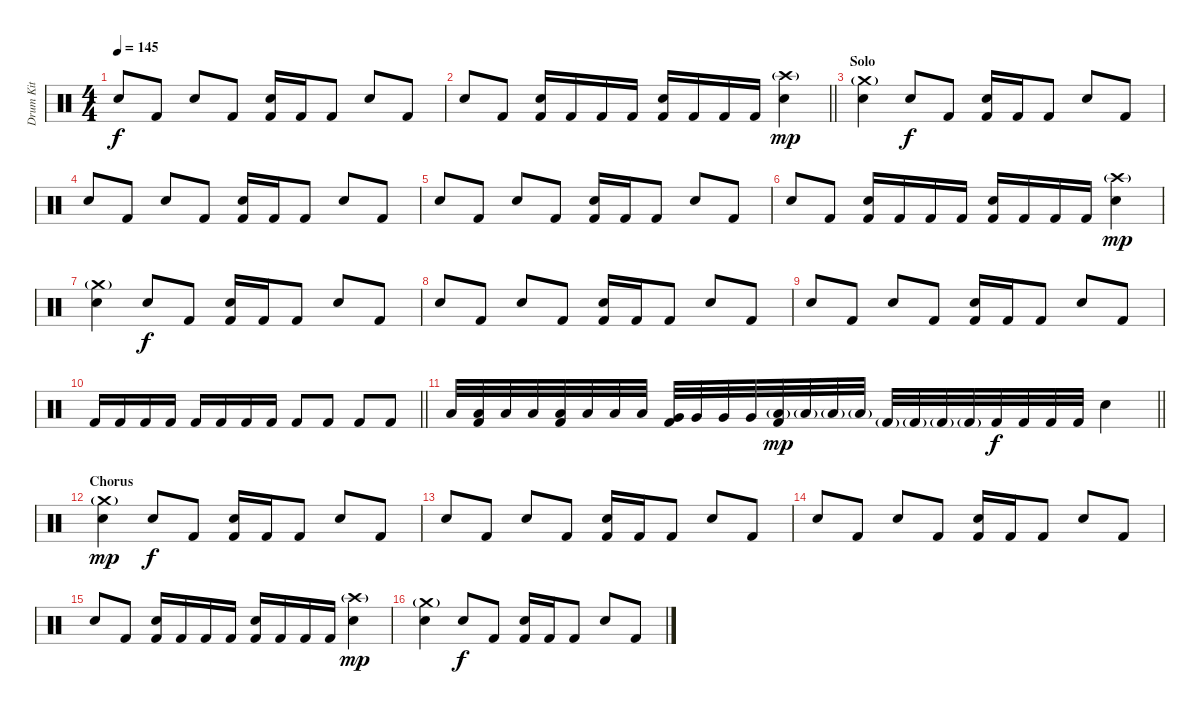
\track ("Drum Kit" "Drum Kit") {instrument percussion}
\staff {score}
\articulation defaults
\ts (4 4)
\tempo 145
\clef neutral
\ks c "Electric Snare (hit)".8{dy f} "Kick (hit) 2".8 "Electric Snare (hit)".8 "Kick (hit) 2".8
("Electric Snare (hit)" "Kick (hit) 2").16 "Kick (hit) 2".16 "Kick (hit) 2".8 "Electric Snare (hit)".8 "Kick (hit) 2".8 |
\barLineRight lightlight "Electric Snare (hit)".8 "Kick (hit) 2".8
("Electric Snare (hit)" "Kick (hit) 2").16 "Kick (hit) 2".16 "Kick (hit) 2".16 "Kick (hit) 2".16 ("Electric Snare (hit)" "Kick (hit) 2").16 "Kick (hit) 2".16 "Kick (hit) 2".16 "Kick (hit) 2".16 ("Crash high (hit)"{g} "Electric Snare (hit)").4{dy mp} |
\section ("" "Solo")
("Crash medium (hit)"{g} "Electric Snare (hit)").4 "Electric Snare (hit)".8{dy f} "Kick (hit) 2".8 ("Electric Snare (hit)" "Kick (hit) 2").16 "Kick (hit) 2".16 "Kick (hit) 2".8 "Electric Snare (hit)".8 "Kick (hit) 2".8 |
"Electric Snare (hit)".8 "Kick (hit) 2".8 "Electric Snare (hit)".8 "Kick (hit) 2".8 ("Electric Snare (hit)" "Kick (hit) 2").16 "Kick (hit) 2".16 "Kick (hit) 2".8 "Electric Snare (hit)".8 "Kick (hit) 2".8 |
"Electric Snare (hit)".8 "Kick (hit) 2".8 "Electric Snare (hit)".8 "Kick (hit) 2".8 ("Electric Snare (hit)" "Kick (hit) 2").16 "Kick (hit) 2".16 "Kick (hit) 2".8 "Electric Snare (hit)".8 "Kick (hit) 2".8 |
"Electric Snare (hit)".8 "Kick (hit) 2".8 ("Electric Snare (hit)" "Kick (hit) 2").16 "Kick (hit) 2".16 "Kick (hit) 2".16 "Kick (hit) 2".16 ("Electric Snare (hit)" "Kick (hit) 2").16 "Kick (hit) 2".16 "Kick (hit) 2".16 "Kick (hit) 2".16 ("Crash high (hit)"{g} "Electric Snare (hit)").4{dy mp} |
("Crash medium (hit)"{g} "Electric Snare (hit)").4 "Electric Snare (hit)".8{dy f} "Kick (hit) 2".8 ("Electric Snare (hit)" "Kick (hit) 2").16 "Kick (hit) 2".16 "Kick (hit) 2".8 "Electric Snare (hit)".8 "Kick (hit) 2".8 |
"Electric Snare (hit)".8 "Kick (hit) 2".8 "Electric Snare (hit)".8 "Kick (hit) 2".8 ("Electric Snare (hit)" "Kick (hit) 2").16 "Kick (hit) 2".16 "Kick (hit) 2".8 "Electric Snare (hit)".8 "Kick (hit) 2".8 |
"Electric Snare (hit)".8 "Kick (hit) 2".8 "Electric Snare (hit)".8 "Kick (hit) 2".8 ("Electric Snare (hit)" "Kick (hit) 2").16 "Kick (hit) 2".16 "Kick (hit) 2".8 "Electric Snare (hit)".8 "Kick (hit) 2".8 |
\barLineRight lightlight "Kick (hit) 2".16 "Kick (hit) 2".16 "Kick (hit) 2".16 "Kick (hit) 2".16 "Kick (hit) 2".16 "Kick (hit) 2".16 "Kick (hit) 2".16 "Kick (hit) 2".16 "Kick (hit) 2".8 "Kick (hit) 2".8 "Kick (hit) 2".8 "Kick (hit) 2".8
|
\barLineRight lightlight "Low Tom (hit)".32
("Low Tom (hit)" "Kick (hit) 2").32 "Low Tom (hit)".32 "Low Tom (hit)".32 ("Low Tom (hit)" "Kick (hit) 2").32 "Low Tom (hit)".32 "Low Tom (hit)".32 "Low Tom (hit)".32 ("Very Low Tom (hit)" "Kick (hit) 2").32 "Very Low Tom (hit)".32 "Very Low Tom (hit)".32 "Very Low Tom (hit)".32 ("Low Floor Tom (hit)"{g} "Kick (hit) 2").32{dy mp} "Low Floor Tom (hit)"{g}.32 "Low Floor Tom (hit)"{g}.32 "Low Floor Tom (hit)"{g}.32 "Kick (hit) 2"{g}.32 "Kick (hit) 2"{g}.32 "Kick (hit) 2"{g}.32 "Kick (hit) 2"{g}.32 "Kick (hit) 2".32{dy f} "Kick (hit) 2".32 "Kick (hit) 2".32 "Kick (hit) 2".32 "Electric Snare (hit)".4 |
\section ("" "Chorus")
("Crash medium (hit)"{g} "Electric Snare (hit)").4{dy mp} "Electric Snare (hit)".8{dy f} "Kick (hit) 2".8 ("Electric Snare (hit)" "Kick (hit) 2").16 "Kick (hit) 2".16 "Kick (hit) 2".8 "Electric Snare (hit)".8 "Kick (hit) 2".8 |
"Electric Snare (hit)".8 "Kick (hit) 2".8 "Electric Snare (hit)".8 "Kick (hit) 2".8 ("Electric Snare (hit)" "Kick (hit) 2").16 "Kick (hit) 2".16 "Kick (hit) 2".8 "Electric Snare (hit)".8 "Kick (hit) 2".8 |
"Electric Snare (hit)".8 "Kick (hit) 2".8 "Electric Snare (hit)".8 "Kick (hit) 2".8 ("Electric Snare (hit)" "Kick (hit) 2").16 "Kick (hit) 2".16 "Kick (hit) 2".8 "Electric Snare (hit)".8 "Kick (hit) 2".8 |
"Electric Snare (hit)".8 "Kick (hit) 2".8 ("Electric Snare (hit)" "Kick (hit) 2").16 "Kick (hit) 2".16 "Kick (hit) 2".16 "Kick (hit) 2".16 ("Electric Snare (hit)" "Kick (hit) 2").16 "Kick (hit) 2".16 "Kick (hit) 2".16 "Kick (hit) 2".16 ("Crash high (hit)"{g} "Electric Snare (hit)").4{dy mp} |
("Crash medium (hit)"{g} "Electric Snare (hit)").4 "Electric Snare (hit)".8{dy f} "Kick (hit) 2".8 ("Electric Snare (hit)" "Kick (hit) 2").16 "Kick (hit) 2".16 "Kick (hit) 2".8 "Electric Snare (hit)".8 "Kick (hit) 2".8
